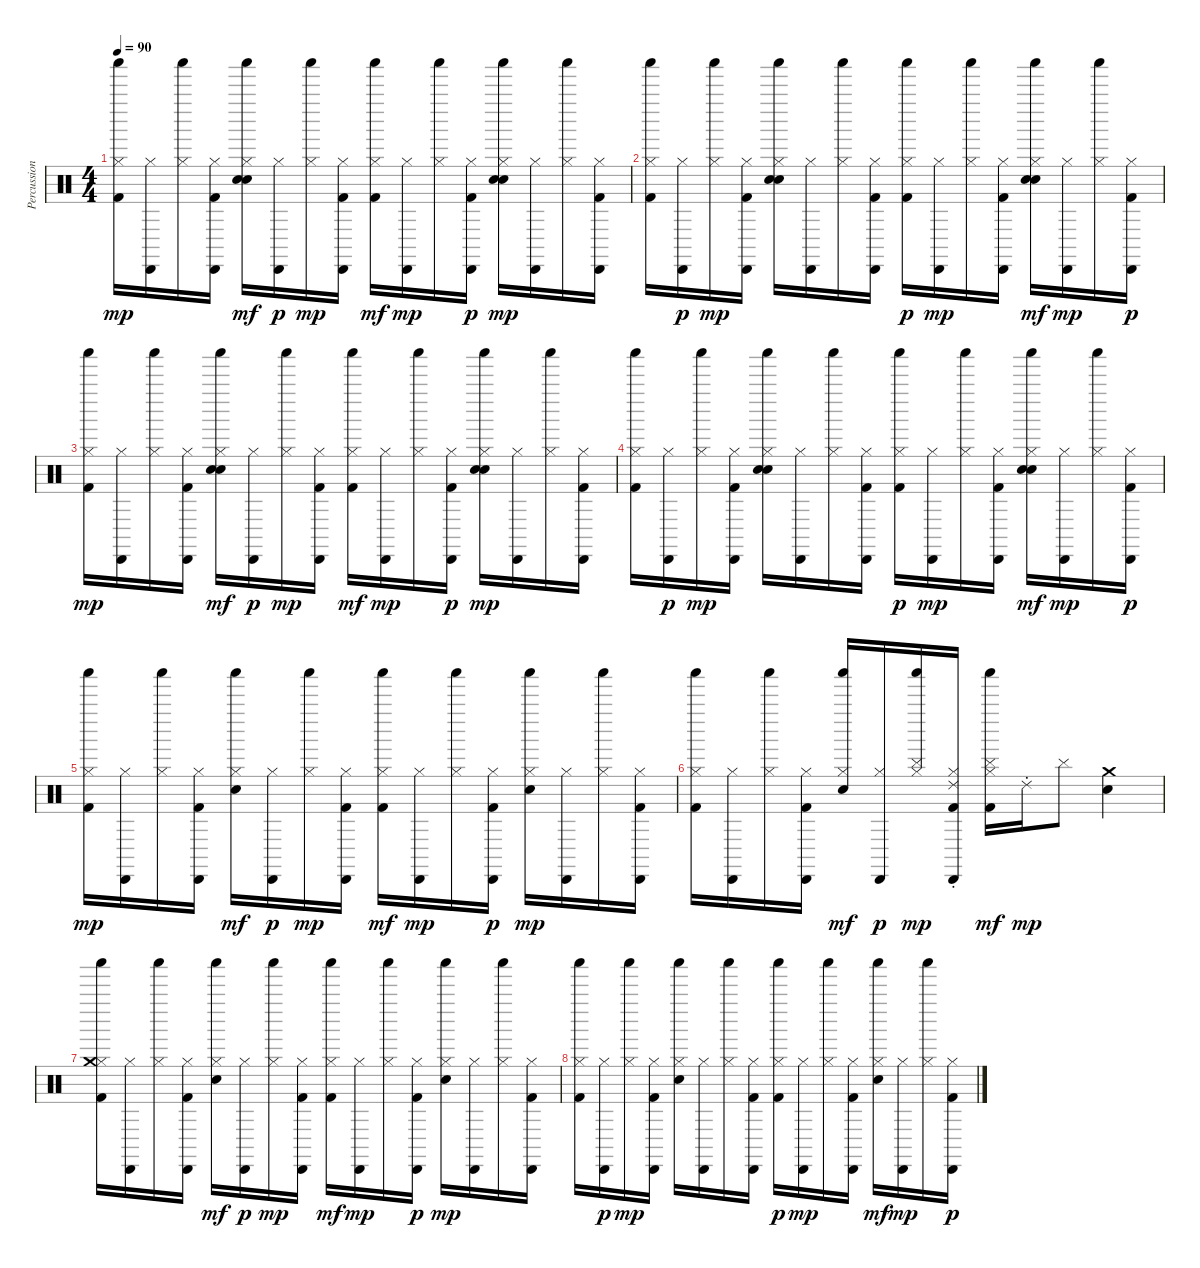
\track ("Percussions" "Percussion") {instrument percussion}
\staff {score}
\articulation defaults
\ts (4 4)
\tempo 90
\clef neutral
\ks c
("Kick (hit) 2" "Hi-Hat (closed)" "Shaker (hit)").16{dy mp} ("Hi-Hat (closed)" "Cabasa (hit)").16 ("Hi-Hat (closed)" "Shaker (hit)").16 ("Kick (hit) 2" "Hi-Hat (closed)" "Cabasa (hit)").16 ("Hand Clap (hit)" "Electric Snare (hit)" "Hi-Hat (closed)" "Shaker (hit)").16{dy mf} ("Hi-Hat (closed)" "Cabasa (hit)").16{dy p} ("Hi-Hat (closed)" "Shaker (hit)").16{dy mp} ("Kick (hit) 2" "Hi-Hat (closed)" "Cabasa (hit)").16 ("Kick (hit) 2" "Hi-Hat (closed)" "Shaker (hit)").16{dy mf} ("Hi-Hat (closed)" "Cabasa (hit)").16{dy mp} ("Hi-Hat (closed)" "Shaker (hit)").16 ("Kick (hit) 2" "Hi-Hat (closed)" "Cabasa (hit)").16{dy p} ("Hand Clap (hit)" "Electric Snare (hit)" "Hi-Hat (closed)" "Shaker (hit)").16{dy mp} ("Hi-Hat (closed)" "Cabasa (hit)").16 ("Hi-Hat (closed)" "Shaker (hit)").16 ("Kick (hit) 2" "Hi-Hat (closed)" "Cabasa (hit)").16 |
("Kick (hit) 2" "Hi-Hat (closed)" "Shaker (hit)").16 ("Hi-Hat (closed)" "Cabasa (hit)").16{dy p} ("Hi-Hat (closed)" "Shaker (hit)").16{dy mp} ("Kick (hit) 2" "Hi-Hat (closed)" "Cabasa (hit)").16 ("Hand Clap (hit)" "Electric Snare (hit)" "Hi-Hat (closed)" "Shaker (hit)").16 ("Hi-Hat (closed)" "Cabasa (hit)").16 ("Hi-Hat (closed)" "Shaker (hit)").16 ("Kick (hit) 2" "Hi-Hat (closed)" "Cabasa (hit)").16 ("Kick (hit) 2" "Hi-Hat (closed)" "Shaker (hit)").16{dy p} ("Hi-Hat (closed)" "Cabasa (hit)").16{dy mp} ("Hi-Hat (closed)" "Shaker (hit)").16 ("Kick (hit) 2" "Hi-Hat (closed)" "Cabasa (hit)").16 ("Hand Clap (hit)" "Electric Snare (hit)" "Hi-Hat (closed)" "Shaker (hit)").16{dy mf} ("Hi-Hat (closed)" "Cabasa (hit)").16{dy mp} ("Hi-Hat (closed)" "Shaker (hit)").16 ("Kick (hit) 2" "Hi-Hat (closed)" "Cabasa (hit)").16{dy p} |
("Kick (hit) 2" "Hi-Hat (closed)" "Shaker (hit)").16{dy mp} ("Hi-Hat (closed)" "Cabasa (hit)").16 ("Hi-Hat (closed)" "Shaker (hit)").16 ("Kick (hit) 2" "Hi-Hat (closed)" "Cabasa (hit)").16 ("Hand Clap (hit)" "Electric Snare (hit)" "Hi-Hat (closed)" "Shaker (hit)").16{dy mf} ("Hi-Hat (closed)" "Cabasa (hit)").16{dy p} ("Hi-Hat (closed)" "Shaker (hit)").16{dy mp} ("Kick (hit) 2" "Hi-Hat (closed)" "Cabasa (hit)").16 ("Kick (hit) 2" "Hi-Hat (closed)" "Shaker (hit)").16{dy mf} ("Hi-Hat (closed)" "Cabasa (hit)").16{dy mp} ("Hi-Hat (closed)" "Shaker (hit)").16 ("Kick (hit) 2" "Hi-Hat (closed)" "Cabasa (hit)").16{dy p} ("Hand Clap (hit)" "Electric Snare (hit)" "Hi-Hat (closed)" "Shaker (hit)").16{dy mp} ("Hi-Hat (closed)" "Cabasa (hit)").16 ("Hi-Hat (closed)" "Shaker (hit)").16 ("Kick (hit) 2" "Hi-Hat (closed)" "Cabasa (hit)").16 |
("Kick (hit) 2" "Hi-Hat (closed)" "Shaker (hit)").16 ("Hi-Hat (closed)" "Cabasa (hit)").16{dy p} ("Hi-Hat (closed)" "Shaker (hit)").16{dy mp} ("Kick (hit) 2" "Hi-Hat (closed)" "Cabasa (hit)").16 ("Hand Clap (hit)" "Electric Snare (hit)" "Hi-Hat (closed)" "Shaker (hit)").16 ("Hi-Hat (closed)" "Cabasa (hit)").16 ("Hi-Hat (closed)" "Shaker (hit)").16 ("Kick (hit) 2" "Hi-Hat (closed)" "Cabasa (hit)").16 ("Kick (hit) 2" "Hi-Hat (closed)" "Shaker (hit)").16{dy p} ("Hi-Hat (closed)" "Cabasa (hit)").16{dy mp} ("Hi-Hat (closed)" "Shaker (hit)").16 ("Kick (hit) 2" "Hi-Hat (closed)" "Cabasa (hit)").16 ("Hand Clap (hit)" "Electric Snare (hit)" "Hi-Hat (closed)" "Shaker (hit)").16{dy mf} ("Hi-Hat (closed)" "Cabasa (hit)").16{dy mp} ("Hi-Hat (closed)" "Shaker (hit)").16 ("Kick (hit) 2" "Hi-Hat (closed)" "Cabasa (hit)").16{dy p} |
("Kick (hit) 2" "Hi-Hat (closed)" "Shaker (hit)").16{dy mp} ("Hi-Hat (closed)" "Cabasa (hit)").16 ("Hi-Hat (closed)" "Shaker (hit)").16 ("Kick (hit) 2" "Hi-Hat (closed)" "Cabasa (hit)").16 ("Electric Snare (hit)" "Hi-Hat (closed)" "Shaker (hit)").16{dy mf} ("Hi-Hat (closed)" "Cabasa (hit)").16{dy p} ("Hi-Hat (closed)" "Shaker (hit)").16{dy mp} ("Kick (hit) 2" "Hi-Hat (closed)" "Cabasa (hit)").16 ("Kick (hit) 2" "Hi-Hat (closed)" "Shaker (hit)").16{dy mf} ("Hi-Hat (closed)" "Cabasa (hit)").16{dy mp} ("Hi-Hat (closed)" "Shaker (hit)").16 ("Kick (hit) 2" "Hi-Hat (closed)" "Cabasa (hit)").16{dy p} ("Electric Snare (hit)" "Hi-Hat (closed)" "Shaker (hit)").16{dy mp} ("Hi-Hat (closed)" "Cabasa (hit)").16 ("Hi-Hat (closed)" "Shaker (hit)").16 ("Kick (hit) 2" "Hi-Hat (closed)" "Cabasa (hit)").16 |
("Kick (hit) 2" "Hi-Hat (closed)" "Shaker (hit)").16 ("Hi-Hat (closed)" "Cabasa (hit)").16 ("Hi-Hat (closed)" "Shaker (hit)").16 ("Kick (hit) 2" "Hi-Hat (closed)" "Cabasa (hit)").16 ("Electric Snare (hit)" "Hi-Hat (closed)" "Shaker (hit)").16{dy mf} ("Hi-Hat (closed)" "Cabasa (hit)").16{dy p} ("Cymbal (hit)" "Hi-Hat (closed)" "Shaker (hit)").16{dy mp} ("Ride (choke) 2" "Kick (hit) 2" "Hi-Hat (closed)" "Cabasa (hit)").16 ("Cymbal (hit)" "Kick (hit) 2" "Hi-Hat (closed)" "Shaker (hit)").16{dy mf} "Ride (choke) 2".16{dy mp} "Cymbal (hit)".8 ("Electric Snare (hit)" "Crash medium (hit)").4 |
("Kick (hit) 2" "Hi-Hat (closed)" "Crash medium (hit)" "Shaker (hit)").16 ("Hi-Hat (closed)" "Cabasa (hit)").16 ("Hi-Hat (closed)" "Shaker (hit)").16 ("Kick (hit) 2" "Hi-Hat (closed)" "Cabasa (hit)").16 ("Electric Snare (hit)" "Hi-Hat (closed)" "Shaker (hit)").16{dy mf} ("Hi-Hat (closed)" "Cabasa (hit)").16{dy p} ("Hi-Hat (closed)" "Shaker (hit)").16{dy mp} ("Kick (hit) 2" "Hi-Hat (closed)" "Cabasa (hit)").16 ("Kick (hit) 2" "Hi-Hat (closed)" "Shaker (hit)").16{dy mf} ("Hi-Hat (closed)" "Cabasa (hit)").16{dy mp} ("Hi-Hat (closed)" "Shaker (hit)").16 ("Kick (hit) 2" "Hi-Hat (closed)" "Cabasa (hit)").16{dy p} ("Electric Snare (hit)" "Hi-Hat (closed)" "Shaker (hit)").16{dy mp} ("Hi-Hat (closed)" "Cabasa (hit)").16 ("Hi-Hat (closed)" "Shaker (hit)").16 ("Kick (hit) 2" "Hi-Hat (closed)" "Cabasa (hit)").16 |
("Kick (hit) 2" "Hi-Hat (closed)" "Shaker (hit)").16 ("Hi-Hat (closed)" "Cabasa (hit)").16{dy p} ("Hi-Hat (closed)" "Shaker (hit)").16{dy mp} ("Kick (hit) 2" "Hi-Hat (closed)" "Cabasa (hit)").16 ("Electric Snare (hit)" "Hi-Hat (closed)" "Shaker (hit)").16 ("Hi-Hat (closed)" "Cabasa (hit)").16 ("Hi-Hat (closed)" "Shaker (hit)").16 ("Kick (hit) 2" "Hi-Hat (closed)" "Cabasa (hit)").16 ("Kick (hit) 2" "Hi-Hat (closed)" "Shaker (hit)").16{dy p} ("Hi-Hat (closed)" "Cabasa (hit)").16{dy mp} ("Hi-Hat (closed)" "Shaker (hit)").16 ("Kick (hit) 2" "Hi-Hat (closed)" "Cabasa (hit)").16 ("Electric Snare (hit)" "Hi-Hat (closed)" "Shaker (hit)").16{dy mf} ("Hi-Hat (closed)" "Cabasa (hit)").16{dy mp} ("Hi-Hat (closed)" "Shaker (hit)").16 ("Kick (hit) 2" "Hi-Hat (closed)" "Cabasa (hit)").16{dy p}
